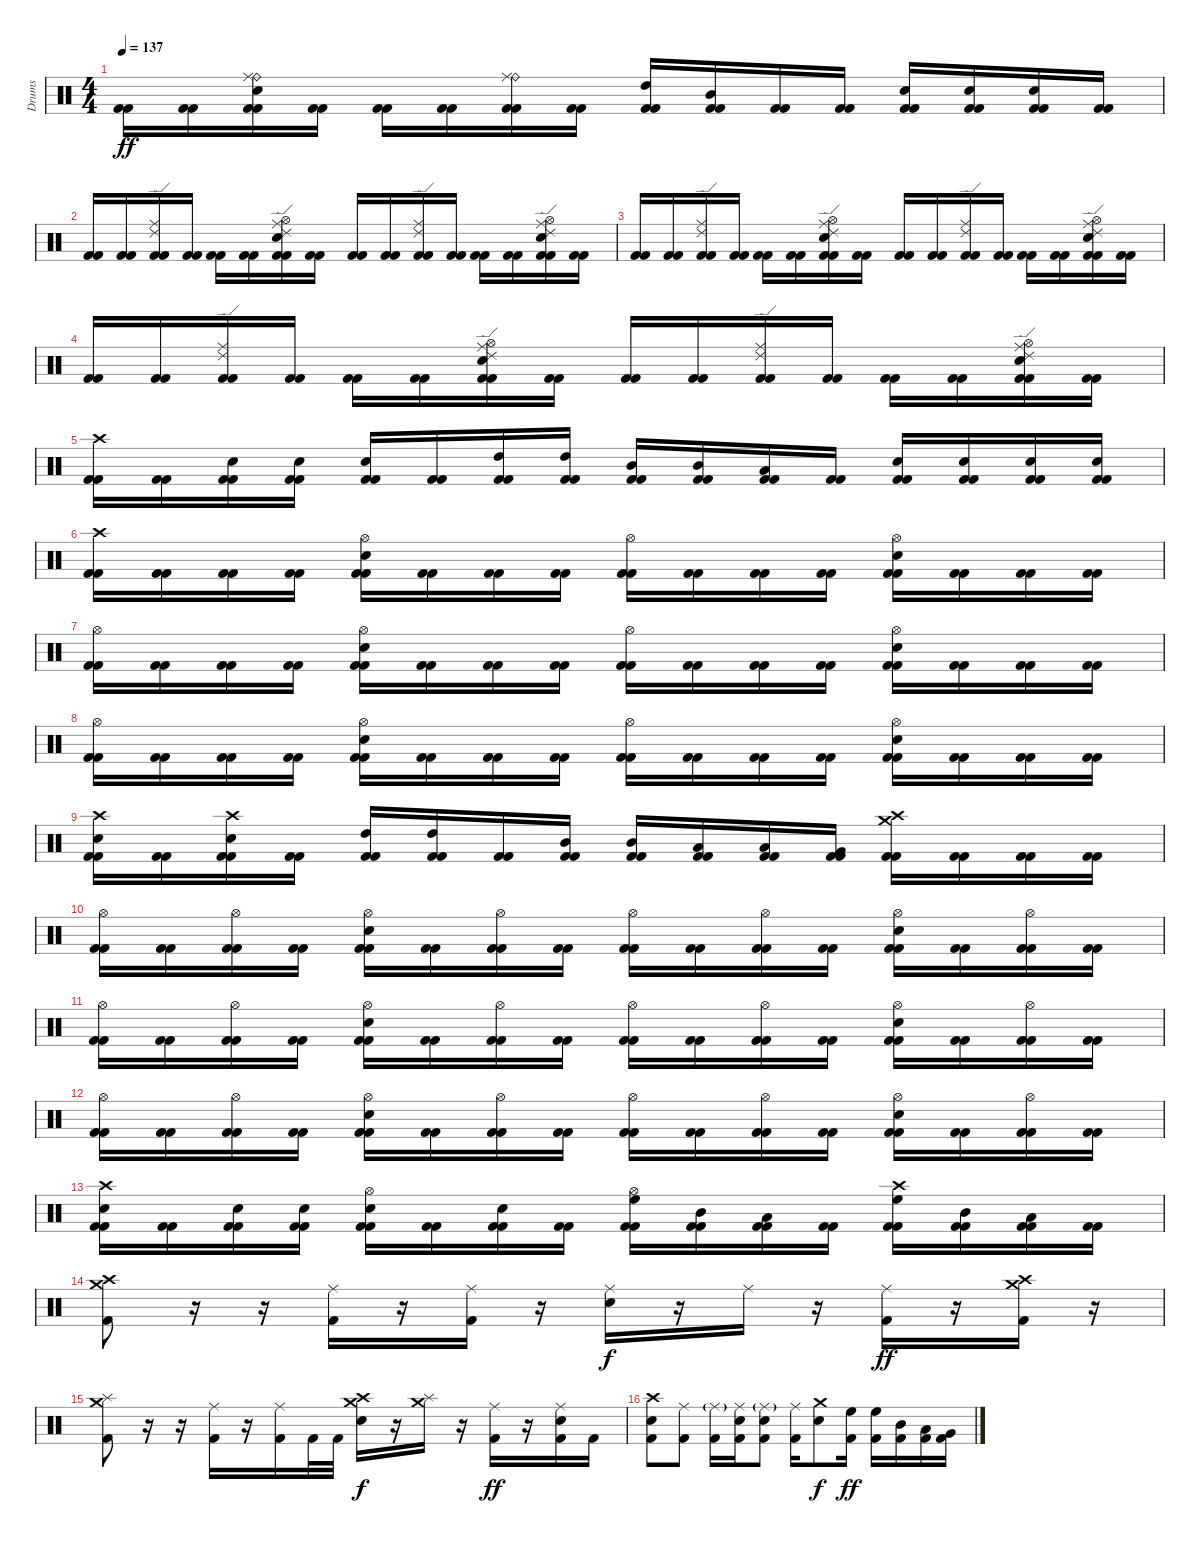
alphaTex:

\track ("Drums" "Drums") {instrument percussion}
\staff {score}
\articulation defaults
\ts (4 4)
\tempo 137
\clef neutral
\ks c
("Kick (hit) 2" "Kick (hit) 2").16{dy ff} ("Kick (hit) 2" "Kick (hit) 2").16 ("Ride (bell)" "Electric Snare (hit)" "Ride (middle)" "Kick (hit) 2" "Kick (hit) 2").16 ("Kick (hit) 2" "Kick (hit) 2").16 ("Kick (hit) 2" "Kick (hit) 2").16 ("Kick (hit) 2" "Kick (hit) 2").16 ("Ride (bell)" "Ride (middle)" "Kick (hit) 2" "Kick (hit) 2").16 ("Kick (hit) 2" "Kick (hit) 2").16 ("High Tom (hit)" "Kick (hit) 2" "Kick (hit) 2").16 ("Mid Tom (hit)" "Kick (hit) 2" "Kick (hit) 2").16 ("Kick (hit) 2" "Kick (hit) 2").16 ("Kick (hit) 2" "Kick (hit) 2").16 ("Electric Snare (hit)" "Kick (hit) 2" "Kick (hit) 2").16 ("Electric Snare (hit)" "Kick (hit) 2" "Kick (hit) 2").16 ("Electric Snare (hit)" "Kick (hit) 2" "Kick (hit) 2").16 ("Kick (hit) 2" "Kick (hit) 2").16 |
("Kick (hit) 2" "Kick (hit) 2").16 ("Kick (hit) 2" "Kick (hit) 2").16 ("Ride (edge) 2" "Ride (middle)" "Kick (hit) 2" "Kick (hit) 2").16 ("Kick (hit) 2" "Kick (hit) 2").16 ("Kick (hit) 2" "Kick (hit) 2").16 ("Kick (hit) 2" "Kick (hit) 2").16 ("Ride (edge) 2" "Hi-Hat (open)" "Ride (middle)" "Electric Snare (hit)" "Kick (hit) 2" "Kick (hit) 2").16 ("Kick (hit) 2" "Kick (hit) 2").16 ("Kick (hit) 2" "Kick (hit) 2").16 ("Kick (hit) 2" "Kick (hit) 2").16 ("Ride (edge) 2" "Ride (middle)" "Kick (hit) 2" "Kick (hit) 2").16 ("Kick (hit) 2" "Kick (hit) 2").16 ("Kick (hit) 2" "Kick (hit) 2").16 ("Kick (hit) 2" "Kick (hit) 2").16 ("Ride (edge) 2" "Hi-Hat (open)" "Ride (middle)" "Electric Snare (hit)" "Kick (hit) 2" "Kick (hit) 2").16 ("Kick (hit) 2" "Kick (hit) 2").16 |
("Kick (hit) 2" "Kick (hit) 2").16 ("Kick (hit) 2" "Kick (hit) 2").16 ("Ride (edge) 2" "Ride (middle)" "Kick (hit) 2" "Kick (hit) 2").16 ("Kick (hit) 2" "Kick (hit) 2").16 ("Kick (hit) 2" "Kick (hit) 2").16 ("Kick (hit) 2" "Kick (hit) 2").16 ("Ride (edge) 2" "Hi-Hat (open)" "Ride (middle)" "Electric Snare (hit)" "Kick (hit) 2" "Kick (hit) 2").16 ("Kick (hit) 2" "Kick (hit) 2").16 ("Kick (hit) 2" "Kick (hit) 2").16 ("Kick (hit) 2" "Kick (hit) 2").16 ("Ride (edge) 2" "Ride (middle)" "Kick (hit) 2" "Kick (hit) 2").16 ("Kick (hit) 2" "Kick (hit) 2").16 ("Kick (hit) 2" "Kick (hit) 2").16 ("Kick (hit) 2" "Kick (hit) 2").16 ("Ride (edge) 2" "Hi-Hat (open)" "Ride (middle)" "Electric Snare (hit)" "Kick (hit) 2" "Kick (hit) 2").16 ("Kick (hit) 2" "Kick (hit) 2").16 |
("Kick (hit) 2" "Kick (hit) 2").16 ("Kick (hit) 2" "Kick (hit) 2").16 ("Ride (edge) 2" "Ride (middle)" "Kick (hit) 2" "Kick (hit) 2").16 ("Kick (hit) 2" "Kick (hit) 2").16 ("Kick (hit) 2" "Kick (hit) 2").16 ("Kick (hit) 2" "Kick (hit) 2").16 ("Ride (edge) 2" "Hi-Hat (open)" "Ride (middle)" "Electric Snare (hit)" "Kick (hit) 2" "Kick (hit) 2").16 ("Kick (hit) 2" "Kick (hit) 2").16 ("Kick (hit) 2" "Kick (hit) 2").16 ("Kick (hit) 2" "Kick (hit) 2").16 ("Ride (edge) 2" "Ride (middle)" "Kick (hit) 2" "Kick (hit) 2").16 ("Kick (hit) 2" "Kick (hit) 2").16 ("Kick (hit) 2" "Kick (hit) 2").16 ("Kick (hit) 2" "Kick (hit) 2").16 ("Ride (edge) 2" "Hi-Hat (open)" "Ride (middle)" "Electric Snare (hit)" "Kick (hit) 2" "Kick (hit) 2").16 ("Kick (hit) 2" "Kick (hit) 2").16 |
("Crash high (hit)" "Kick (hit) 2" "Kick (hit) 2").16 ("Kick (hit) 2" "Kick (hit) 2").16 ("Electric Snare (hit)" "Kick (hit) 2" "Kick (hit) 2").16 ("Electric Snare (hit)" "Kick (hit) 2" "Kick (hit) 2").16 ("Electric Snare (hit)" "Kick (hit) 2" "Kick (hit) 2").16 ("Kick (hit) 2" "Kick (hit) 2").16 ("High Tom (hit)" "Kick (hit) 2" "Kick (hit) 2").16 ("High Tom (hit)" "Kick (hit) 2" "Kick (hit) 2").16 ("Mid Tom (hit)" "Kick (hit) 2" "Kick (hit) 2").16 ("Mid Tom (hit)" "Kick (hit) 2" "Kick (hit) 2").16 ("Low Tom (hit)" "Kick (hit) 2" "Kick (hit) 2").16 ("Kick (hit) 2" "Kick (hit) 2").16 ("Electric Snare (hit)" "Kick (hit) 2" "Kick (hit) 2").16 ("Electric Snare (hit)" "Kick (hit) 2" "Kick (hit) 2").16 ("Electric Snare (hit)" "Kick (hit) 2" "Kick (hit) 2").16 ("Electric Snare (hit)" "Kick (hit) 2" "Kick (hit) 2").16 |
("Crash high (hit)" "Kick (hit) 2" "Kick (hit) 2").16 ("Kick (hit) 2" "Kick (hit) 2").16 ("Kick (hit) 2" "Kick (hit) 2").16 ("Kick (hit) 2" "Kick (hit) 2").16 ("Hi-Hat (open)" "Electric Snare (hit)" "Kick (hit) 2" "Kick (hit) 2").16 ("Kick (hit) 2" "Kick (hit) 2").16 ("Kick (hit) 2" "Kick (hit) 2").16 ("Kick (hit) 2" "Kick (hit) 2").16 ("Hi-Hat (open)" "Kick (hit) 2" "Kick (hit) 2").16 ("Kick (hit) 2" "Kick (hit) 2").16 ("Kick (hit) 2" "Kick (hit) 2").16 ("Kick (hit) 2" "Kick (hit) 2").16 ("Hi-Hat (open)" "Electric Snare (hit)" "Kick (hit) 2" "Kick (hit) 2").16 ("Kick (hit) 2" "Kick (hit) 2").16 ("Kick (hit) 2" "Kick (hit) 2").16 ("Kick (hit) 2" "Kick (hit) 2").16 |
("Hi-Hat (open)" "Kick (hit) 2" "Kick (hit) 2").16 ("Kick (hit) 2" "Kick (hit) 2").16 ("Kick (hit) 2" "Kick (hit) 2").16 ("Kick (hit) 2" "Kick (hit) 2").16 ("Hi-Hat (open)" "Electric Snare (hit)" "Kick (hit) 2" "Kick (hit) 2").16 ("Kick (hit) 2" "Kick (hit) 2").16 ("Kick (hit) 2" "Kick (hit) 2").16 ("Kick (hit) 2" "Kick (hit) 2").16 ("Hi-Hat (open)" "Kick (hit) 2" "Kick (hit) 2").16 ("Kick (hit) 2" "Kick (hit) 2").16 ("Kick (hit) 2" "Kick (hit) 2").16 ("Kick (hit) 2" "Kick (hit) 2").16 ("Hi-Hat (open)" "Electric Snare (hit)" "Kick (hit) 2" "Kick (hit) 2").16 ("Kick (hit) 2" "Kick (hit) 2").16 ("Kick (hit) 2" "Kick (hit) 2").16 ("Kick (hit) 2" "Kick (hit) 2").16 |
("Hi-Hat (open)" "Kick (hit) 2" "Kick (hit) 2").16 ("Kick (hit) 2" "Kick (hit) 2").16 ("Kick (hit) 2" "Kick (hit) 2").16 ("Kick (hit) 2" "Kick (hit) 2").16 ("Hi-Hat (open)" "Electric Snare (hit)" "Kick (hit) 2" "Kick (hit) 2").16 ("Kick (hit) 2" "Kick (hit) 2").16 ("Kick (hit) 2" "Kick (hit) 2").16 ("Kick (hit) 2" "Kick (hit) 2").16 ("Hi-Hat (open)" "Kick (hit) 2" "Kick (hit) 2").16 ("Kick (hit) 2" "Kick (hit) 2").16 ("Kick (hit) 2" "Kick (hit) 2").16 ("Kick (hit) 2" "Kick (hit) 2").16 ("Hi-Hat (open)" "Electric Snare (hit)" "Kick (hit) 2" "Kick (hit) 2").16 ("Kick (hit) 2" "Kick (hit) 2").16 ("Kick (hit) 2" "Kick (hit) 2").16 ("Kick (hit) 2" "Kick (hit) 2").16 |
("Crash high (hit)" "Electric Snare (hit)" "Kick (hit) 2" "Kick (hit) 2").16 ("Kick (hit) 2" "Kick (hit) 2").16 ("Crash high (hit)" "Electric Snare (hit)" "Kick (hit) 2" "Kick (hit) 2").16 ("Kick (hit) 2" "Kick (hit) 2").16 ("High Tom (hit)" "Kick (hit) 2" "Kick (hit) 2").16 ("High Tom (hit)" "Kick (hit) 2" "Kick (hit) 2").16 ("Kick (hit) 2" "Kick (hit) 2").16 ("Mid Tom (hit)" "Kick (hit) 2" "Kick (hit) 2").16 ("Mid Tom (hit)" "Kick (hit) 2" "Kick (hit) 2").16 ("Low Tom (hit)" "Kick (hit) 2" "Kick (hit) 2").16 ("Low Tom (hit)" "Kick (hit) 2" "Kick (hit) 2").16 ("Very Low Tom (hit)" "Kick (hit) 2" "Kick (hit) 2").16 ("Crash high (hit)" "Crash medium (hit)" "Kick (hit) 2" "Kick (hit) 2").16 ("Kick (hit) 2" "Kick (hit) 2").16 ("Kick (hit) 2" "Kick (hit) 2").16 ("Kick (hit) 2" "Kick (hit) 2").16 |
("Hi-Hat (open)" "Kick (hit) 2" "Kick (hit) 2").16 ("Kick (hit) 2" "Kick (hit) 2").16 ("Hi-Hat (open)" "Kick (hit) 2" "Kick (hit) 2").16 ("Kick (hit) 2" "Kick (hit) 2").16 ("Hi-Hat (open)" "Electric Snare (hit)" "Kick (hit) 2" "Kick (hit) 2").16 ("Kick (hit) 2" "Kick (hit) 2").16 ("Hi-Hat (open)" "Kick (hit) 2" "Kick (hit) 2").16 ("Kick (hit) 2" "Kick (hit) 2").16 ("Hi-Hat (open)" "Kick (hit) 2" "Kick (hit) 2").16 ("Kick (hit) 2" "Kick (hit) 2").16 ("Hi-Hat (open)" "Kick (hit) 2" "Kick (hit) 2").16 ("Kick (hit) 2" "Kick (hit) 2").16 ("Hi-Hat (open)" "Electric Snare (hit)" "Kick (hit) 2" "Kick (hit) 2").16 ("Kick (hit) 2" "Kick (hit) 2").16 ("Hi-Hat (open)" "Kick (hit) 2" "Kick (hit) 2").16 ("Kick (hit) 2" "Kick (hit) 2").16 |
("Hi-Hat (open)" "Kick (hit) 2" "Kick (hit) 2").16 ("Kick (hit) 2" "Kick (hit) 2").16 ("Hi-Hat (open)" "Kick (hit) 2" "Kick (hit) 2").16 ("Kick (hit) 2" "Kick (hit) 2").16 ("Hi-Hat (open)" "Electric Snare (hit)" "Kick (hit) 2" "Kick (hit) 2").16 ("Kick (hit) 2" "Kick (hit) 2").16 ("Hi-Hat (open)" "Kick (hit) 2" "Kick (hit) 2").16 ("Kick (hit) 2" "Kick (hit) 2").16 ("Hi-Hat (open)" "Kick (hit) 2" "Kick (hit) 2").16 ("Kick (hit) 2" "Kick (hit) 2").16 ("Hi-Hat (open)" "Kick (hit) 2" "Kick (hit) 2").16 ("Kick (hit) 2" "Kick (hit) 2").16 ("Hi-Hat (open)" "Electric Snare (hit)" "Kick (hit) 2" "Kick (hit) 2").16 ("Kick (hit) 2" "Kick (hit) 2").16 ("Hi-Hat (open)" "Kick (hit) 2" "Kick (hit) 2").16 ("Kick (hit) 2" "Kick (hit) 2").16 |
("Hi-Hat (open)" "Kick (hit) 2" "Kick (hit) 2").16 ("Kick (hit) 2" "Kick (hit) 2").16 ("Hi-Hat (open)" "Kick (hit) 2" "Kick (hit) 2").16 ("Kick (hit) 2" "Kick (hit) 2").16 ("Hi-Hat (open)" "Electric Snare (hit)" "Kick (hit) 2" "Kick (hit) 2").16 ("Kick (hit) 2" "Kick (hit) 2").16 ("Hi-Hat (open)" "Kick (hit) 2" "Kick (hit) 2").16 ("Kick (hit) 2" "Kick (hit) 2").16 ("Hi-Hat (open)" "Kick (hit) 2" "Kick (hit) 2").16 ("Kick (hit) 2" "Kick (hit) 2").16 ("Hi-Hat (open)" "Kick (hit) 2" "Kick (hit) 2").16 ("Kick (hit) 2" "Kick (hit) 2").16 ("Hi-Hat (open)" "Electric Snare (hit)" "Kick (hit) 2" "Kick (hit) 2").16 ("Kick (hit) 2" "Kick (hit) 2").16 ("Hi-Hat (open)" "Kick (hit) 2" "Kick (hit) 2").16 ("Kick (hit) 2" "Kick (hit) 2").16 |
("Electric Snare (hit)" "Crash high (hit)" "Kick (hit) 2" "Kick (hit) 2").16 ("Kick (hit) 2" "Kick (hit) 2").16 ("Electric Snare (hit)" "Kick (hit) 2" "Kick (hit) 2").16 ("Electric Snare (hit)" "Kick (hit) 2" "Kick (hit) 2").16 ("Electric Snare (hit)" "Hi-Hat (open)" "Kick (hit) 2" "Kick (hit) 2").16 ("Kick (hit) 2" "Kick (hit) 2").16 ("Electric Snare (hit)" "Kick (hit) 2" "Kick (hit) 2").16 ("Kick (hit) 2" "Kick (hit) 2").16 ("High Floor Tom (hit)" "Hi-Hat (open)" "Kick (hit) 2" "Kick (hit) 2").16 ("Mid Tom (hit)" "Kick (hit) 2" "Kick (hit) 2").16 ("Low Tom (hit)" "Kick (hit) 2" "Kick (hit) 2").16 ("Kick (hit) 2" "Kick (hit) 2").16 ("High Floor Tom (hit)" "Crash high (hit)" "Kick (hit) 2" "Kick (hit) 2").16 ("Mid Tom (hit)" "Kick (hit) 2" "Kick (hit) 2").16 ("Low Tom (hit)" "Kick (hit) 2" "Kick (hit) 2").16 ("Kick (hit) 2" "Kick (hit) 2").16 |
("Crash high (hit)" "Crash medium (hit)" "Kick (hit) 2").8 r.16 r.16 ("Ride (middle)" "Kick (hit) 2").16 r.16 ("Ride (middle)" "Kick (hit) 2").16 r.16 ("Ride (middle)" "Electric Snare (hit)").16{dy f} r.16 "Ride (middle)".16 r.16 ("Ride (middle)" "Kick (hit) 2").16{dy ff} r.16 ("Crash high (hit)" "Crash medium (hit)" "Kick (hit) 2").16 r.16 |
("Crash medium (hit)" "Splash (hit)" "Kick (hit) 2").8 r.16 r.16 ("Ride (middle)" "Kick (hit) 2").16 r.16 ("Ride (middle)" "Kick (hit) 2").16 "Kick (hit) 2".32 "Kick (hit) 2".32 ("Crash high (hit)" "Electric Snare (hit)" "Crash medium (hit)").16{dy f} r.16 ("Crash medium (hit)" "Splash (hit)").16 r.16 ("Ride (middle)" "Kick (hit) 2").16{dy ff} r.16 ("Ride (middle)" "Electric Snare (hit)" "Kick (hit) 2").16 "Kick (hit) 2".16 |
("Crash high (hit)" "Electric Snare (hit)" "Kick (hit) 2").8 ("Ride (middle)" "Kick (hit) 2").8 ("Ride (middle)"{g} "Kick (hit) 2").16 ("Ride (middle)" "Electric Snare (hit)" "Kick (hit) 2").16 ("Ride (middle)"{g} "Electric Snare (hit)" "Kick (hit) 2").8 ("Ride (middle)" "Kick (hit) 2").16 ("Crash medium (hit)" "Electric Snare (hit)").8{dy f} ("High Floor Tom (hit)" "Kick (hit) 2").16{dy ff} ("High Floor Tom (hit)" "Kick (hit) 2").16 ("Mid Tom (hit)" "Kick (hit) 2").16 ("Low Tom (hit)" "Kick (hit) 2").16 ("Very Low Tom (hit)" "Kick (hit) 2").16
